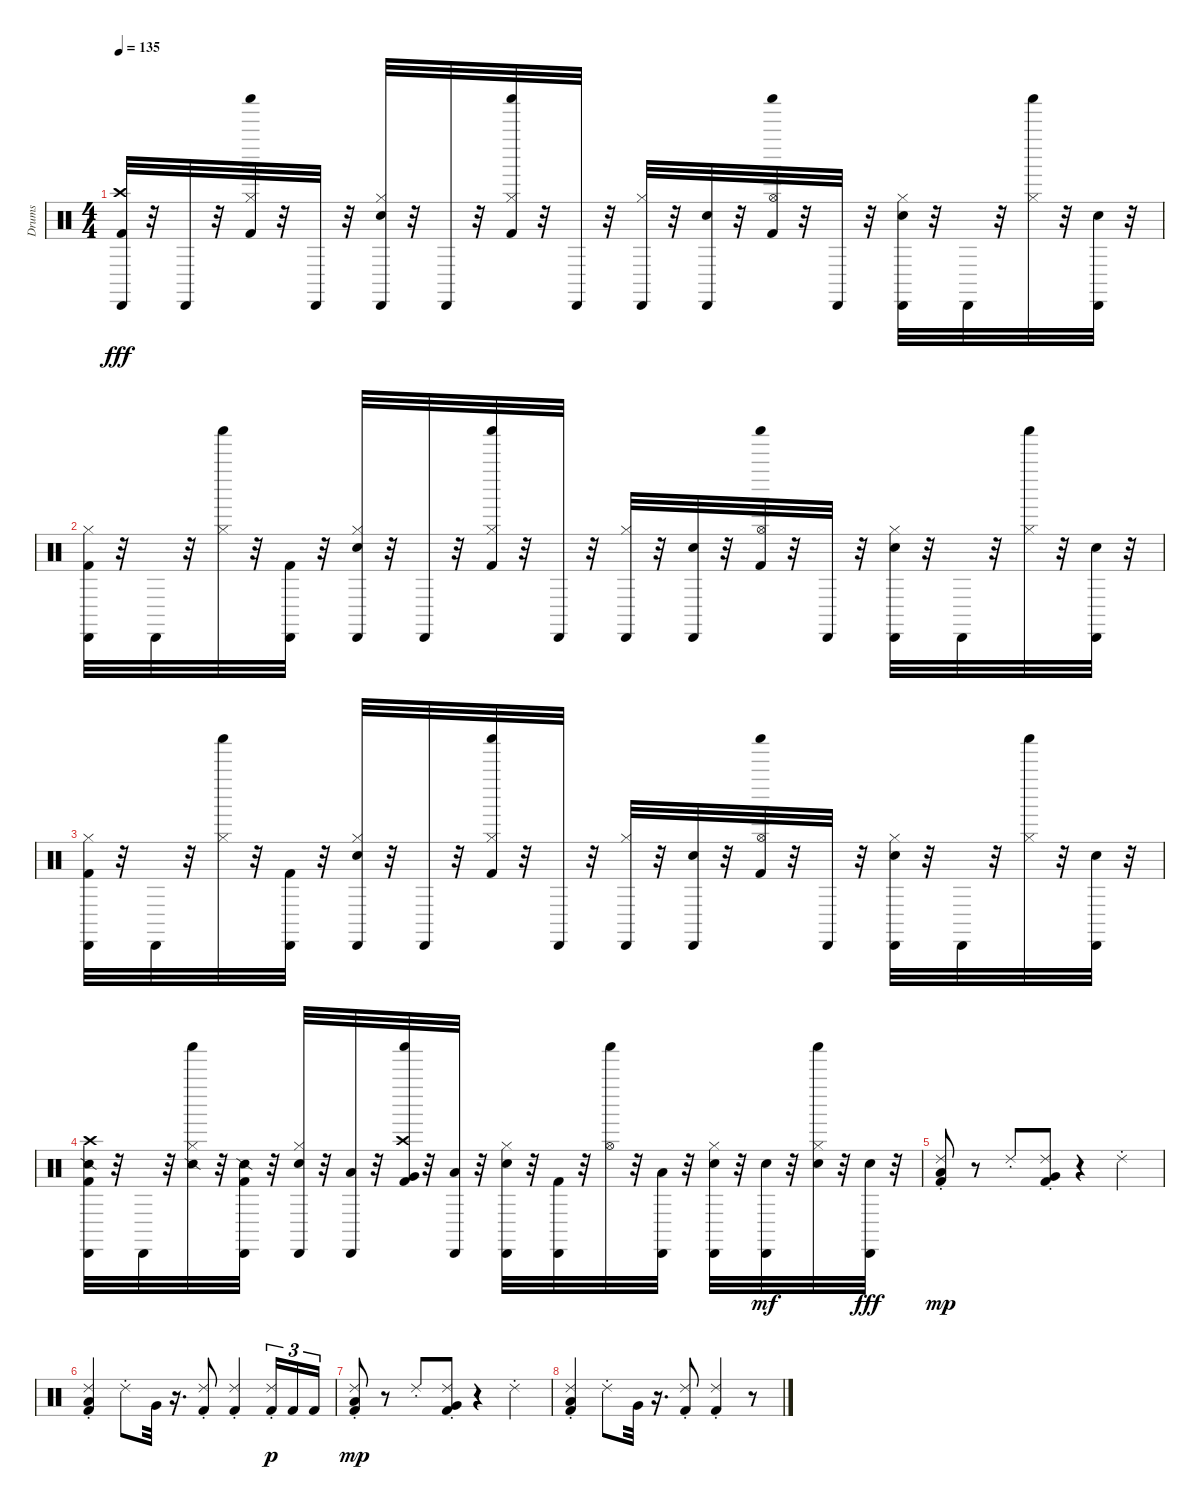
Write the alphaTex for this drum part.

\track ("Drums" "Drums") {instrument percussion}
\staff {score}
\articulation defaults
\ts (4 4)
\tempo 135
\clef neutral
\ks c
("Crash high (hit)" "Kick (hit) 2" "Cabasa (hit)").32{dy fff} r.32 "Cabasa (hit)".32 r.32 ("Shaker (hit)" "Hi-Hat (closed)" "Kick (hit) 2").32 r.32 "Cabasa (hit)".32 r.32 ("Snare (hit) 2" "Hi-Hat (closed)" "Cabasa (hit)").32 r.32 "Cabasa (hit)".32 r.32 ("Kick (hit) 2" "Shaker (hit)" "Hi-Hat (closed)").32 r.32 "Cabasa (hit)".32 r.32 ("Hi-Hat (closed)" "Cabasa (hit)").32 r.32 ("Snare (hit) 2" "Cabasa (hit)").32 r.32 ("Kick (hit) 2" "Shaker (hit)" "Hi-Hat (open)").32 r.32 "Cabasa (hit)".32 r.32 ("Snare (hit) 2" "Hi-Hat (closed)" "Cabasa (hit)").32 r.32 "Cabasa (hit)".32 r.32 ("Shaker (hit)" "Hi-Hat (closed)").32 r.32 ("Snare (hit) 2" "Cabasa (hit)").32 r.32 |
("Hi-Hat (closed)" "Kick (hit) 2" "Cabasa (hit)").32 r.32 "Cabasa (hit)".32 r.32 ("Shaker (hit)" "Hi-Hat (closed)").32 r.32 ("Kick (hit) 2" "Cabasa (hit)").32 r.32 ("Snare (hit) 2" "Hi-Hat (closed)" "Cabasa (hit)").32 r.32 "Cabasa (hit)".32 r.32 ("Kick (hit) 2" "Shaker (hit)" "Hi-Hat (closed)").32 r.32 "Cabasa (hit)".32 r.32 ("Hi-Hat (closed)" "Cabasa (hit)").32 r.32 ("Snare (hit) 2" "Cabasa (hit)").32 r.32 ("Kick (hit) 2" "Shaker (hit)" "Hi-Hat (open)").32 r.32 "Cabasa (hit)".32 r.32 ("Snare (hit) 2" "Hi-Hat (closed)" "Cabasa (hit)").32 r.32 "Cabasa (hit)".32 r.32 ("Shaker (hit)" "Hi-Hat (closed)").32 r.32 ("Snare (hit) 2" "Cabasa (hit)").32 r.32 |
("Hi-Hat (closed)" "Kick (hit) 2" "Cabasa (hit)").32 r.32 "Cabasa (hit)".32 r.32 ("Shaker (hit)" "Hi-Hat (closed)").32 r.32 ("Kick (hit) 2" "Cabasa (hit)").32 r.32 ("Snare (hit) 2" "Hi-Hat (closed)" "Cabasa (hit)").32 r.32 "Cabasa (hit)".32 r.32 ("Kick (hit) 2" "Shaker (hit)" "Hi-Hat (closed)").32 r.32 "Cabasa (hit)".32 r.32 ("Hi-Hat (closed)" "Cabasa (hit)").32 r.32 ("Snare (hit) 2" "Cabasa (hit)").32 r.32 ("Kick (hit) 2" "Shaker (hit)" "Hi-Hat (open)").32 r.32 "Cabasa (hit)".32 r.32 ("Snare (hit) 2" "Hi-Hat (closed)" "Cabasa (hit)").32 r.32 "Cabasa (hit)".32 r.32 ("Shaker (hit)" "Hi-Hat (closed)").32 r.32 ("Snare (hit) 2" "Cabasa (hit)").32 r.32 |
("Crash high (hit)" "Kick (hit) 2" "Cabasa (hit)" "Snare (side stick) 2").32 r.32 "Cabasa (hit)".32 r.32 ("Shaker (hit)" "Hi-Hat (closed)" "Snare (side stick) 2").32 r.32 ("Kick (hit) 2" "Cabasa (hit)" "Snare (side stick) 2").32 r.32 ("Snare (hit) 2" "Hi-Hat (closed)" "Cabasa (hit)").32 r.32 ("Cabasa (hit)" "Low Tom (hit)").32 r.32 ("Kick (hit) 2" "Shaker (hit)" "Crash high (hit)" "Very Low Tom (hit)").32 r.32 ("Cabasa (hit)" "Low Floor Tom (hit)").32 r.32 ("Hi-Hat (closed)" "Cabasa (hit)" "Snare (hit) 2").32 r.32 ("Cabasa (hit)" "Kick (hit) 2").32 r.32 ("Shaker (hit)" "Hi-Hat (open)").32 r.32 ("Cabasa (hit)" "Low Floor Tom (hit)").32 r.32 ("Snare (hit) 2" "Hi-Hat (closed)" "Cabasa (hit)").32 r.32 ("Cabasa (hit)" "Snare (hit) 2").32{dy mf} r.32 ("Shaker (hit)" "Hi-Hat (closed)" "Snare (hit) 2").32 r.32 ("Snare (hit) 2" "Cabasa (hit)").32{dy fff} r.32 |
("Kick (hit) 2" "Ride (choke) 2" "Low Floor Tom (hit)").8{dy mp} r.8 "Ride (choke) 2".8 ("Kick (hit) 2" "Ride (choke) 2" "Very Low Tom (hit)").8 r.4 "Ride (choke) 2".4 |
("Kick (hit) 2" "Ride (choke) 2" "Low Floor Tom (hit)").4 "Ride (choke) 2".8 "Very Low Tom (hit)".32 r.16{d} ("Ride (choke) 2" "Kick (hit) 2").8 ("Ride (choke) 2" "Kick (hit) 2").4 ("Ride (choke) 2" "Kick (hit) 2").16{tu (3 2) dy p} "Kick (hit) 2".16{tu (3 2)} "Kick (hit) 2".16{tu (3 2)} |
("Kick (hit) 2" "Ride (choke) 2" "Low Floor Tom (hit)").8{dy mp} r.8 "Ride (choke) 2".8 ("Kick (hit) 2" "Ride (choke) 2" "Very Low Tom (hit)").8 r.4 "Ride (choke) 2".4 |
("Kick (hit) 2" "Ride (choke) 2" "Low Floor Tom (hit)").4 "Ride (choke) 2".8 "Very Low Tom (hit)".32 r.16{d} ("Ride (choke) 2" "Kick (hit) 2").8 ("Ride (choke) 2" "Kick (hit) 2").4 r.8
